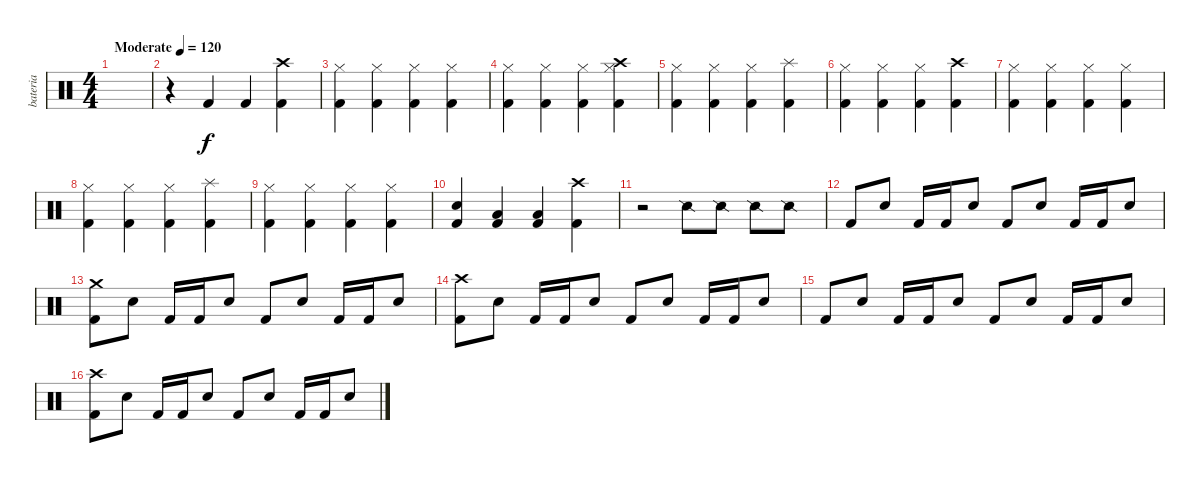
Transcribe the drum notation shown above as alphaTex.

\track ("bateria" "bateria") {instrument percussion}
\staff {score}
\articulation defaults
\ts (4 4)
\tempo (120 "Moderate")
\clef neutral
\ks c
|
r.4 "Kick (hit) 2".4 "Kick (hit) 2".4 ("Kick (hit) 2" "Crash high (hit)").4 |
("Kick (hit) 2" "Hi-Hat (closed)").4 ("Kick (hit) 2" "Hi-Hat (closed)").4 ("Kick (hit) 2" "Hi-Hat (closed)").4 ("Kick (hit) 2" "Hi-Hat (closed)").4 |
("Kick (hit) 2" "Hi-Hat (closed)").4 ("Kick (hit) 2" "Hi-Hat (closed)").4 ("Kick (hit) 2" "Hi-Hat (closed)").4 ("Kick (hit) 2" "Crash high (hit)" "Hi-Hat (closed)").4 |
("Kick (hit) 2" "Hi-Hat (closed)").4 ("Kick (hit) 2" "Hi-Hat (closed)").4 ("Kick (hit) 2" "Hi-Hat (closed)").4 ("Kick (hit) 2" "Splash (hit)").4 |
("Kick (hit) 2" "Hi-Hat (closed)").4 ("Kick (hit) 2" "Hi-Hat (closed)").4 ("Kick (hit) 2" "Hi-Hat (closed)").4 ("Kick (hit) 2" "Crash high (hit)").4 |
("Kick (hit) 2" "Hi-Hat (closed)").4 ("Kick (hit) 2" "Hi-Hat (closed)").4 ("Kick (hit) 2" "Hi-Hat (closed)").4 ("Kick (hit) 2" "Hi-Hat (closed)").4 |
("Kick (hit) 2" "Hi-Hat (closed)").4 ("Kick (hit) 2" "Hi-Hat (closed)").4 ("Kick (hit) 2" "Hi-Hat (closed)").4 ("Kick (hit) 2" "Splash (hit)").4 |
("Kick (hit) 2" "Hi-Hat (closed)").4 ("Kick (hit) 2" "Hi-Hat (closed)").4 ("Kick (hit) 2" "Hi-Hat (closed)").4 ("Kick (hit) 2" "Hi-Hat (closed)").4 |
("Kick (hit) 2" "Electric Snare (hit)").4 ("Kick (hit) 2" "Low Floor Tom (hit)").4 ("Kick (hit) 2" "Low Floor Tom (hit)").4 ("Kick (hit) 2" "Crash high (hit)").4 |
r.2 "Snare (side stick) 2".8 "Snare (side stick) 2".8 "Snare (side stick) 2".8 "Snare (side stick) 2".8 |
"Kick (hit) 2".8 "Electric Snare (hit)".8 "Kick (hit) 2".16 "Kick (hit) 2".16 "Electric Snare (hit)".8 "Kick (hit) 2".8 "Electric Snare (hit)".8 "Kick (hit) 2".16 "Kick (hit) 2".16 "Electric Snare (hit)".8 |
("Kick (hit) 2" "Crash medium (hit)").8 "Electric Snare (hit)".8 "Kick (hit) 2".16 "Kick (hit) 2".16 "Electric Snare (hit)".8 "Kick (hit) 2".8 "Electric Snare (hit)".8 "Kick (hit) 2".16 "Kick (hit) 2".16 "Electric Snare (hit)".8 |
("Kick (hit) 2" "Crash high (hit)").8 "Electric Snare (hit)".8 "Kick (hit) 2".16 "Kick (hit) 2".16 "Electric Snare (hit)".8 "Kick (hit) 2".8 "Electric Snare (hit)".8 "Kick (hit) 2".16 "Kick (hit) 2".16 "Electric Snare (hit)".8 |
"Kick (hit) 2".8 "Electric Snare (hit)".8 "Kick (hit) 2".16 "Kick (hit) 2".16 "Electric Snare (hit)".8 "Kick (hit) 2".8 "Electric Snare (hit)".8 "Kick (hit) 2".16 "Kick (hit) 2".16 "Electric Snare (hit)".8 |
("Kick (hit) 2" "Crash high (hit)").8 "Electric Snare (hit)".8 "Kick (hit) 2".16 "Kick (hit) 2".16 "Electric Snare (hit)".8 "Kick (hit) 2".8 "Electric Snare (hit)".8 "Kick (hit) 2".16 "Kick (hit) 2".16 "Electric Snare (hit)".8
